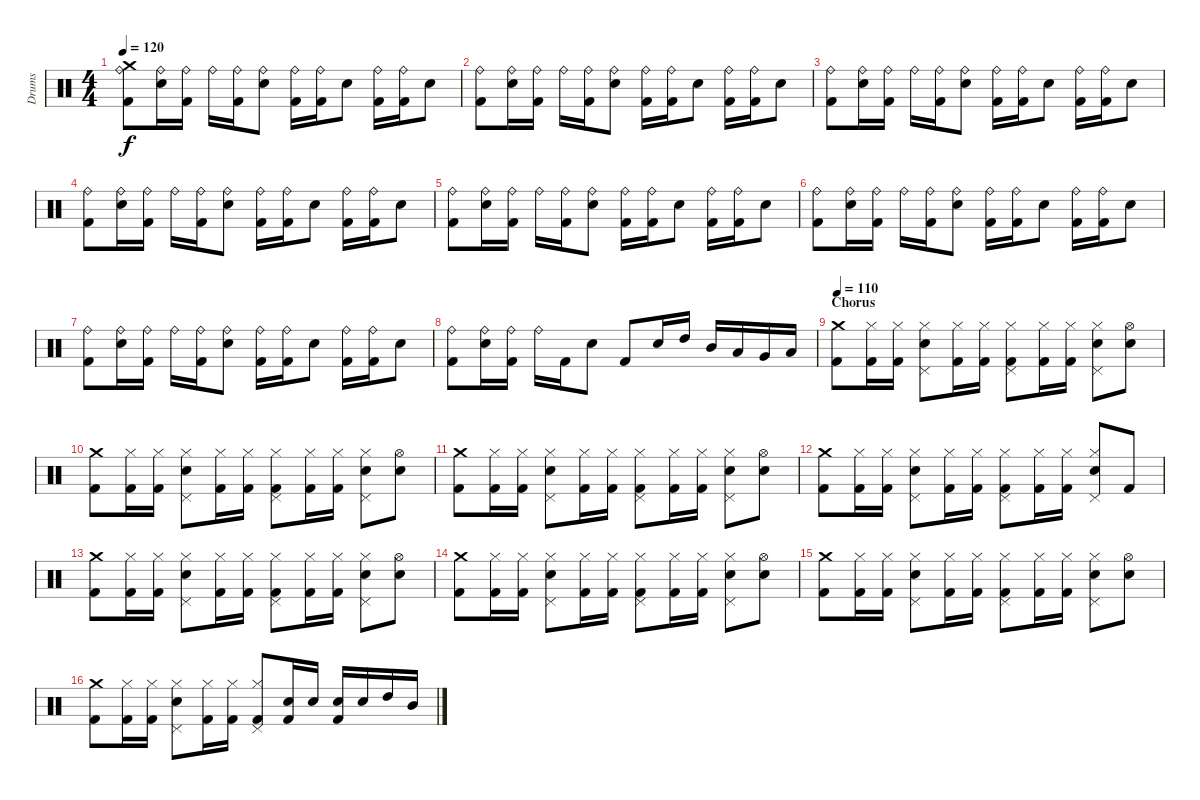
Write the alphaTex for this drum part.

\track ("Drums" "Drums") {instrument percussion}
\staff {score}
\articulation defaults
\ts (4 4)
\tempo 120
\clef neutral
\ks c
("Crash medium (hit)" "Kick (hit) 2" "Ride (bell)").8{dy f} ("Snare (hit) 2" "Ride (bell)").16 ("Kick (hit) 2" "Ride (bell)").16 "Ride (bell)".16 ("Kick (hit) 2" "Ride (bell)").16 ("Snare (hit) 2" "Ride (bell)").8 ("Kick (hit) 2" "Ride (bell)").16 ("Kick (hit) 2" "Ride (bell)").16 "Snare (hit) 2".8 ("Kick (hit) 2" "Ride (bell)").16 ("Kick (hit) 2" "Ride (bell)").16 "Snare (hit) 2".8 |
("Kick (hit) 2" "Ride (bell)").8 ("Snare (hit) 2" "Ride (bell)").16 ("Kick (hit) 2" "Ride (bell)").16 "Ride (bell)".16 ("Kick (hit) 2" "Ride (bell)").16 ("Snare (hit) 2" "Ride (bell)").8 ("Kick (hit) 2" "Ride (bell)").16 ("Kick (hit) 2" "Ride (bell)").16 "Snare (hit) 2".8 ("Kick (hit) 2" "Ride (bell)").16 ("Kick (hit) 2" "Ride (bell)").16 "Snare (hit) 2".8 |
("Kick (hit) 2" "Ride (bell)").8 ("Snare (hit) 2" "Ride (bell)").16 ("Kick (hit) 2" "Ride (bell)").16 "Ride (bell)".16 ("Kick (hit) 2" "Ride (bell)").16 ("Snare (hit) 2" "Ride (bell)").8 ("Kick (hit) 2" "Ride (bell)").16 ("Kick (hit) 2" "Ride (bell)").16 "Snare (hit) 2".8 ("Kick (hit) 2" "Ride (bell)").16 ("Kick (hit) 2" "Ride (bell)").16 "Snare (hit) 2".8 |
("Kick (hit) 2" "Ride (bell)").8 ("Snare (hit) 2" "Ride (bell)").16 ("Kick (hit) 2" "Ride (bell)").16 "Ride (bell)".16 ("Kick (hit) 2" "Ride (bell)").16 ("Snare (hit) 2" "Ride (bell)").8 ("Kick (hit) 2" "Ride (bell)").16 ("Kick (hit) 2" "Ride (bell)").16 "Snare (hit) 2".8 ("Kick (hit) 2" "Ride (bell)").16 ("Kick (hit) 2" "Ride (bell)").16 "Snare (hit) 2".8 |
("Kick (hit) 2" "Ride (bell)").8 ("Snare (hit) 2" "Ride (bell)").16 ("Kick (hit) 2" "Ride (bell)").16 "Ride (bell)".16 ("Kick (hit) 2" "Ride (bell)").16 ("Snare (hit) 2" "Ride (bell)").8 ("Kick (hit) 2" "Ride (bell)").16 ("Kick (hit) 2" "Ride (bell)").16 "Snare (hit) 2".8 ("Kick (hit) 2" "Ride (bell)").16 ("Kick (hit) 2" "Ride (bell)").16 "Snare (hit) 2".8 |
("Kick (hit) 2" "Ride (bell)").8 ("Snare (hit) 2" "Ride (bell)").16 ("Kick (hit) 2" "Ride (bell)").16 "Ride (bell)".16 ("Kick (hit) 2" "Ride (bell)").16 ("Snare (hit) 2" "Ride (bell)").8 ("Kick (hit) 2" "Ride (bell)").16 ("Kick (hit) 2" "Ride (bell)").16 "Snare (hit) 2".8 ("Kick (hit) 2" "Ride (bell)").16 ("Kick (hit) 2" "Ride (bell)").16 "Snare (hit) 2".8 |
("Kick (hit) 2" "Ride (bell)").8 ("Snare (hit) 2" "Ride (bell)").16 ("Kick (hit) 2" "Ride (bell)").16 "Ride (bell)".16 ("Kick (hit) 2" "Ride (bell)").16 ("Snare (hit) 2" "Ride (bell)").8 ("Kick (hit) 2" "Ride (bell)").16 ("Kick (hit) 2" "Ride (bell)").16 "Snare (hit) 2".8 ("Kick (hit) 2" "Ride (bell)").16 ("Kick (hit) 2" "Ride (bell)").16 "Snare (hit) 2".8 |
("Kick (hit) 2" "Ride (bell)").8 ("Snare (hit) 2" "Ride (bell)").16 ("Kick (hit) 2" "Ride (bell)").16 "Ride (bell)".16 "Kick (hit) 2".16 "Snare (hit) 2".8 "Kick (hit) 2".8 "Snare (hit) 2".16 "High Tom (hit)".16 "Mid Tom (hit)".16 "Low Tom (hit)".16 "Very Low Tom (hit)".16 "Low Floor Tom (hit)".16 |
\section ("" "Chorus")
\tempo 110
("Crash medium (hit)" "Kick (hit) 2").8 ("Kick (hit) 2" "Hi-Hat (closed)").16 ("Kick (hit) 2" "Hi-Hat (closed)").16 ("Snare (hit) 2" "Pedal Hi-Hat (hit)" "Hi-Hat (closed)").8 ("Kick (hit) 2" "Hi-Hat (closed)").16 ("Kick (hit) 2" "Hi-Hat (closed)").16 ("Kick (hit) 2" "Pedal Hi-Hat (hit)" "Hi-Hat (closed)").8 ("Kick (hit) 2" "Hi-Hat (closed)").16 ("Kick (hit) 2" "Hi-Hat (closed)").16 ("Snare (hit) 2" "Pedal Hi-Hat (hit)" "Hi-Hat (closed)").8 ("Snare (hit) 2" "Hi-Hat (open)").8 |
("Crash medium (hit)" "Kick (hit) 2").8 ("Kick (hit) 2" "Hi-Hat (closed)").16 ("Kick (hit) 2" "Hi-Hat (closed)").16 ("Snare (hit) 2" "Pedal Hi-Hat (hit)" "Hi-Hat (closed)").8 ("Kick (hit) 2" "Hi-Hat (closed)").16 ("Kick (hit) 2" "Hi-Hat (closed)").16 ("Kick (hit) 2" "Pedal Hi-Hat (hit)" "Hi-Hat (closed)").8 ("Kick (hit) 2" "Hi-Hat (closed)").16 ("Kick (hit) 2" "Hi-Hat (closed)").16 ("Snare (hit) 2" "Pedal Hi-Hat (hit)" "Hi-Hat (closed)").8 ("Snare (hit) 2" "Hi-Hat (open)").8 |
("Crash medium (hit)" "Kick (hit) 2").8 ("Kick (hit) 2" "Hi-Hat (closed)").16 ("Kick (hit) 2" "Hi-Hat (closed)").16 ("Snare (hit) 2" "Pedal Hi-Hat (hit)" "Hi-Hat (closed)").8 ("Kick (hit) 2" "Hi-Hat (closed)").16 ("Kick (hit) 2" "Hi-Hat (closed)").16 ("Kick (hit) 2" "Pedal Hi-Hat (hit)" "Hi-Hat (closed)").8 ("Kick (hit) 2" "Hi-Hat (closed)").16 ("Kick (hit) 2" "Hi-Hat (closed)").16 ("Snare (hit) 2" "Pedal Hi-Hat (hit)" "Hi-Hat (closed)").8 ("Snare (hit) 2" "Hi-Hat (open)").8 |
("Crash medium (hit)" "Kick (hit) 2").8 ("Kick (hit) 2" "Hi-Hat (closed)").16 ("Kick (hit) 2" "Hi-Hat (closed)").16 ("Snare (hit) 2" "Pedal Hi-Hat (hit)" "Hi-Hat (closed)").8 ("Kick (hit) 2" "Hi-Hat (closed)").16 ("Kick (hit) 2" "Hi-Hat (closed)").16 ("Kick (hit) 2" "Pedal Hi-Hat (hit)" "Hi-Hat (closed)").8 ("Kick (hit) 2" "Hi-Hat (closed)").16 ("Kick (hit) 2" "Hi-Hat (closed)").16 ("Snare (hit) 2" "Pedal Hi-Hat (hit)" "Hi-Hat (closed)").8 "Kick (hit) 2".8 |
("Crash medium (hit)" "Kick (hit) 2").8 ("Kick (hit) 2" "Hi-Hat (closed)").16 ("Kick (hit) 2" "Hi-Hat (closed)").16 ("Snare (hit) 2" "Pedal Hi-Hat (hit)" "Hi-Hat (closed)").8 ("Kick (hit) 2" "Hi-Hat (closed)").16 ("Kick (hit) 2" "Hi-Hat (closed)").16 ("Kick (hit) 2" "Pedal Hi-Hat (hit)" "Hi-Hat (closed)").8 ("Kick (hit) 2" "Hi-Hat (closed)").16 ("Kick (hit) 2" "Hi-Hat (closed)").16 ("Snare (hit) 2" "Pedal Hi-Hat (hit)" "Hi-Hat (closed)").8 ("Snare (hit) 2" "Hi-Hat (open)").8 |
("Crash medium (hit)" "Kick (hit) 2").8 ("Kick (hit) 2" "Hi-Hat (closed)").16 ("Kick (hit) 2" "Hi-Hat (closed)").16 ("Snare (hit) 2" "Pedal Hi-Hat (hit)" "Hi-Hat (closed)").8 ("Kick (hit) 2" "Hi-Hat (closed)").16 ("Kick (hit) 2" "Hi-Hat (closed)").16 ("Kick (hit) 2" "Pedal Hi-Hat (hit)" "Hi-Hat (closed)").8 ("Kick (hit) 2" "Hi-Hat (closed)").16 ("Kick (hit) 2" "Hi-Hat (closed)").16 ("Snare (hit) 2" "Pedal Hi-Hat (hit)" "Hi-Hat (closed)").8 ("Snare (hit) 2" "Hi-Hat (open)").8 |
("Crash medium (hit)" "Kick (hit) 2").8 ("Kick (hit) 2" "Hi-Hat (closed)").16 ("Kick (hit) 2" "Hi-Hat (closed)").16 ("Snare (hit) 2" "Pedal Hi-Hat (hit)" "Hi-Hat (closed)").8 ("Kick (hit) 2" "Hi-Hat (closed)").16 ("Kick (hit) 2" "Hi-Hat (closed)").16 ("Kick (hit) 2" "Pedal Hi-Hat (hit)" "Hi-Hat (closed)").8 ("Kick (hit) 2" "Hi-Hat (closed)").16 ("Kick (hit) 2" "Hi-Hat (closed)").16 ("Snare (hit) 2" "Pedal Hi-Hat (hit)" "Hi-Hat (closed)").8 ("Snare (hit) 2" "Hi-Hat (open)").8 |
("Crash medium (hit)" "Kick (hit) 2").8 ("Kick (hit) 2" "Hi-Hat (closed)").16 ("Kick (hit) 2" "Hi-Hat (closed)").16 ("Snare (hit) 2" "Pedal Hi-Hat (hit)" "Hi-Hat (closed)").8 ("Kick (hit) 2" "Hi-Hat (closed)").16 ("Kick (hit) 2" "Hi-Hat (closed)").16 ("Kick (hit) 2" "Pedal Hi-Hat (hit)" "Hi-Hat (closed)").8 ("Snare (hit) 2" "Kick (hit) 2").16 "Snare (hit) 2".16 ("Snare (hit) 2" "Kick (hit) 2").16 "Snare (hit) 2".16 "High Tom (hit)".16 "Mid Tom (hit)".16
